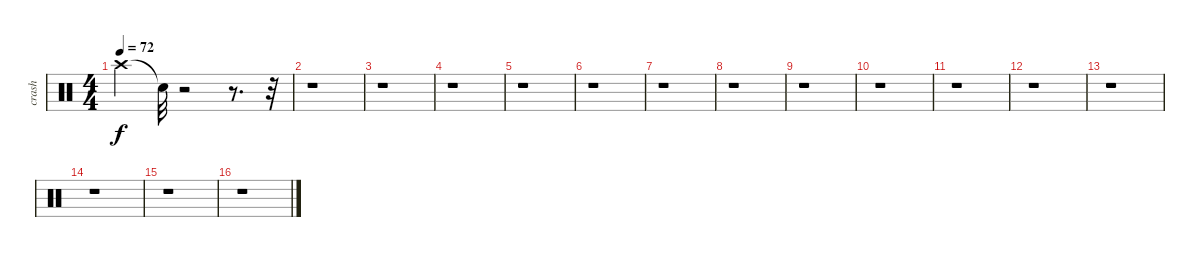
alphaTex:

\track ("crash" "crash") {instrument percussion}
\staff {score}
\articulation defaults
\ts (4 4)
\tempo 72
\clef neutral
\ks c "Crash high (hit)".4{dy f} "Snare (hit)"{t}.32
r.2 r.8{d} r.32 |
r.1 |
r.1 |
r.1 |
r.1 |
r.1 |
r.1 |
r.1 |
r.1 |
r.1 |
r.1 |
r.1 |
r.1 |
r.1 |
r.1 |
r.1
